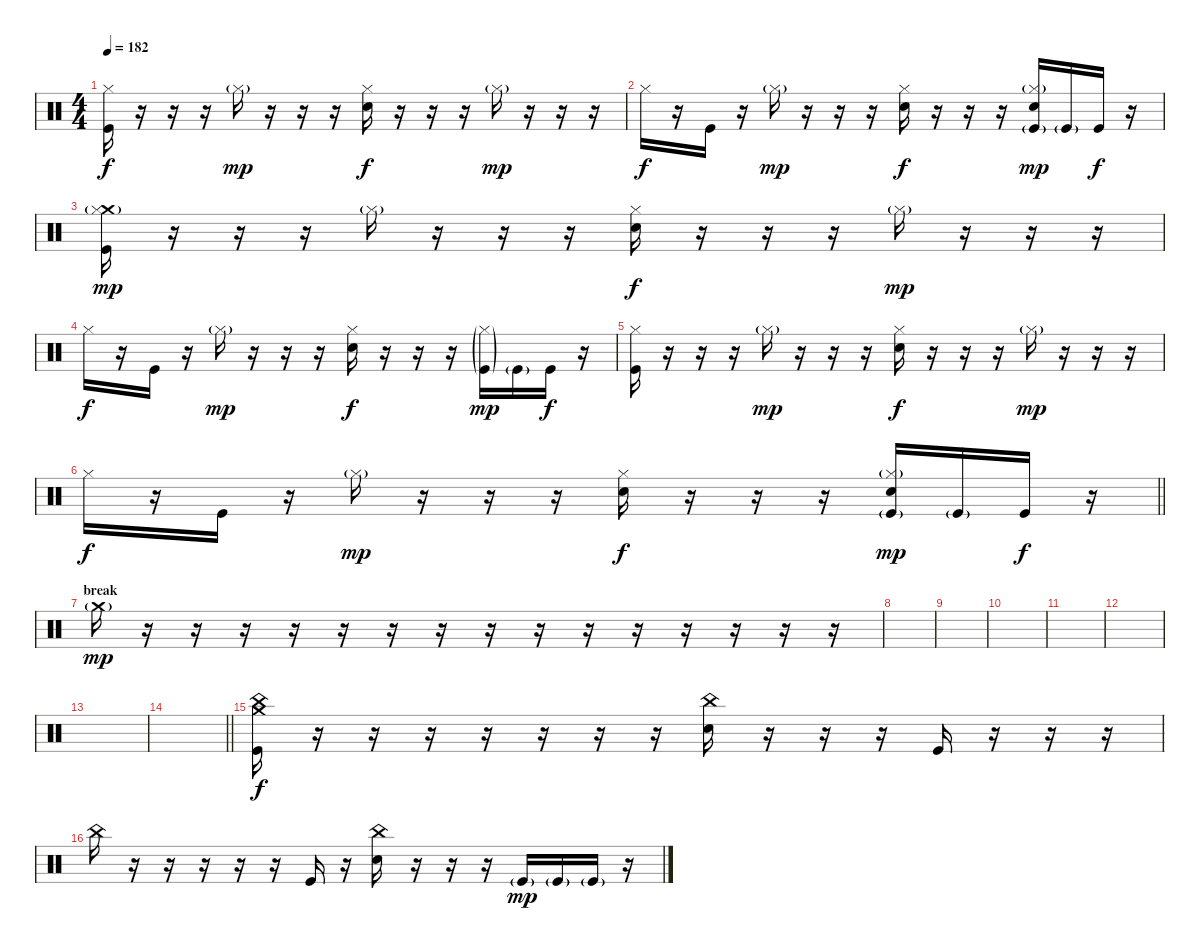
\track "" {instrument percussion}
\staff {score}
\articulation defaults
\ts (4 4)
\tempo 182
\clef neutral
\ks c
("Kick (hit)" "Hi-Hat (closed)").16{dy f} r.16 r.16 r.16 "Hi-Hat (closed)"{g}.16{dy mp} r.16 r.16 r.16 ("Hi-Hat (closed)" "Electric Snare (hit)").16{dy f} r.16 r.16 r.16 "Hi-Hat (closed)"{g}.16{dy mp} r.16 r.16 r.16 |
"Hi-Hat (closed)".16{dy f} r.16 "Kick (hit)".16 r.16 "Hi-Hat (closed)"{g}.16{dy mp} r.16 r.16 r.16 ("Hi-Hat (closed)" "Electric Snare (hit)").16{dy f} r.16 r.16 r.16 ("Kick (hit)"{g} "Hi-Hat (closed)"{g} "Electric Snare (hit)").16{dy mp} "Kick (hit)"{g}.16 "Kick (hit)".16{dy f} r.16 |
("Crash medium (hit)"{g} "Kick (hit)" "Hi-Hat (closed)").16{dy mp} r.16 r.16 r.16 "Hi-Hat (closed)"{g}.16 r.16 r.16 r.16 ("Hi-Hat (closed)" "Electric Snare (hit)").16{dy f} r.16 r.16 r.16 "Hi-Hat (closed)"{g}.16{dy mp} r.16 r.16 r.16 |
"Hi-Hat (closed)".16{dy f} r.16 "Kick (hit)".16 r.16 "Hi-Hat (closed)"{g}.16{dy mp} r.16 r.16 r.16 ("Hi-Hat (closed)" "Electric Snare (hit)").16{dy f} r.16 r.16 r.16 ("Kick (hit)"{g} "Hi-Hat (closed)"{g}).16{dy mp} "Kick (hit)"{g}.16 "Kick (hit)".16{dy f} r.16 |
("Kick (hit)" "Hi-Hat (closed)").16 r.16 r.16 r.16 "Hi-Hat (closed)"{g}.16{dy mp} r.16 r.16 r.16 ("Hi-Hat (closed)" "Electric Snare (hit)").16{dy f} r.16 r.16 r.16 "Hi-Hat (closed)"{g}.16{dy mp} r.16 r.16 r.16 |
\barLineRight lightlight "Hi-Hat (closed)".16{dy f}
r.16 "Kick (hit)".16 r.16 "Hi-Hat (closed)"{g}.16{dy mp} r.16 r.16 r.16 ("Hi-Hat (closed)" "Electric Snare (hit)").16{dy f} r.16 r.16 r.16 ("Kick (hit)"{g} "Hi-Hat (closed)"{g} "Electric Snare (hit)").16{dy mp} "Kick (hit)"{g}.16 "Kick (hit)".16{dy f} r.16 |
\section ("" "break")
"Crash medium (hit)"{g}.16{dy mp} r.16 r.16 r.16 r.16 r.16 r.16 r.16 r.16 r.16 r.16 r.16 r.16 r.16 r.16 r.16 |
|
|
|
|
|
|
\barLineRight lightlight
|
("Crash medium (hit)" "Kick (hit)" "China (hit)").16{dy f} r.16 r.16 r.16 r.16 r.16 r.16 r.16 ("China (hit)" "Electric Snare (hit)").16 r.16 r.16 r.16 "Kick (hit)".16 r.16 r.16 r.16 |
"China (hit)".16 r.16 r.16 r.16 r.16 r.16 "Kick (hit)".16 r.16 ("China (hit)" "Electric Snare (hit)").16 r.16 r.16 r.16 "Kick (hit)"{g}.16{dy mp} "Kick (hit)"{g}.16 "Kick (hit)"{g}.16 r.16
